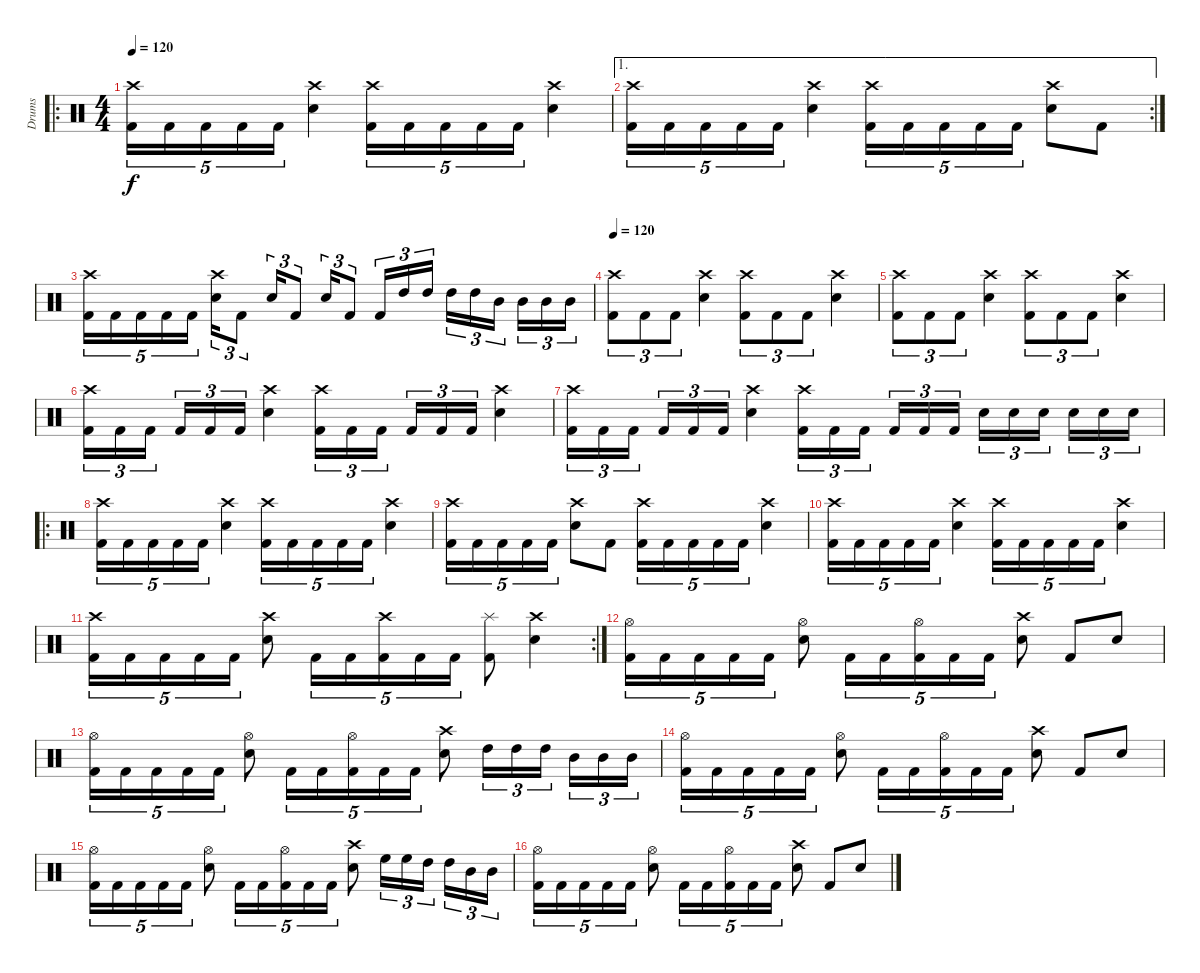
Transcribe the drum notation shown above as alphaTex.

\track ("Drums" "Drums") {instrument percussion}
\staff {score}
\articulation defaults
\ro
\ts (4 4)
\tempo 120
\clef neutral
\ks c
("Crash high (hit)" "Kick (hit) 2").16{tu (5 4) dy f} "Kick (hit) 2".16{tu (5 4)} "Kick (hit) 2".16{tu (5 4)} "Kick (hit) 2".16{tu (5 4)} "Kick (hit) 2".16{tu (5 4)} ("Crash high (hit)" "Electric Snare (hit)").4 ("Crash high (hit)" "Kick (hit) 2").16{tu (5 4)} "Kick (hit) 2".16{tu (5 4)} "Kick (hit) 2".16{tu (5 4)} "Kick (hit) 2".16{tu (5 4)} "Kick (hit) 2".16{tu (5 4)} ("Crash high (hit)" "Electric Snare (hit)").4 |
\ae 1
\rc 2
("Crash high (hit)" "Kick (hit) 2").16{tu (5 4)} "Kick (hit) 2".16{tu (5 4)} "Kick (hit) 2".16{tu (5 4)} "Kick (hit) 2".16{tu (5 4)} "Kick (hit) 2".16{tu (5 4)} ("Crash high (hit)" "Electric Snare (hit)").4 ("Crash high (hit)" "Kick (hit) 2").16{tu (5 4)} "Kick (hit) 2".16{tu (5 4)} "Kick (hit) 2".16{tu (5 4)} "Kick (hit) 2".16{tu (5 4)} "Kick (hit) 2".16{tu (5 4)} ("Crash high (hit)" "Electric Snare (hit)").8 "Kick (hit) 2".8 |
("Crash high (hit)" "Kick (hit) 2").16{tu (5 4)} "Kick (hit) 2".16{tu (5 4)} "Kick (hit) 2".16{tu (5 4)} "Kick (hit) 2".16{tu (5 4)} "Kick (hit) 2".16{tu (5 4)} ("Crash high (hit)" "Electric Snare (hit)").16{tu (3 2)} "Kick (hit) 2".8{tu (3 2)} "Electric Snare (hit)".16{tu (3 2)} "Kick (hit) 2".8{tu (3 2)} "Electric Snare (hit)".16{tu (3 2)} "Kick (hit) 2".8{tu (3 2)} "Kick (hit) 2".16{tu (3 2)} "High Tom (hit)".16{tu (3 2)} "High Tom (hit)".16{tu (3 2)} "High Tom (hit)".16{tu (3 2)} "High Tom (hit)".16{tu (3 2)} "Mid Tom (hit)".16{tu (3 2)} "Mid Tom (hit)".16{tu (3 2)} "Mid Tom (hit)".16{tu (3 2)} "Mid Tom (hit)".16{tu (3 2)} |
\tempo 120
("Crash high (hit)" "Kick (hit) 2").8{tu (3 2)} "Kick (hit) 2".8{tu (3 2)} "Kick (hit) 2".8{tu (3 2)} ("Crash high (hit)" "Electric Snare (hit)").4 ("Crash high (hit)" "Kick (hit) 2").8{tu (3 2)} "Kick (hit) 2".8{tu (3 2)} "Kick (hit) 2".8{tu (3 2)} ("Crash high (hit)" "Electric Snare (hit)").4 |
("Crash high (hit)" "Kick (hit) 2").8{tu (3 2)} "Kick (hit) 2".8{tu (3 2)} "Kick (hit) 2".8{tu (3 2)} ("Crash high (hit)" "Electric Snare (hit)").4 ("Crash high (hit)" "Kick (hit) 2").8{tu (3 2)} "Kick (hit) 2".8{tu (3 2)} "Kick (hit) 2".8{tu (3 2)} ("Crash high (hit)" "Electric Snare (hit)").4 |
("Crash high (hit)" "Kick (hit) 2").16{tu (3 2)} "Kick (hit) 2".16{tu (3 2)} "Kick (hit) 2".16{tu (3 2)} "Kick (hit) 2".16{tu (3 2)} "Kick (hit) 2".16{tu (3 2)} "Kick (hit) 2".16{tu (3 2)} ("Crash high (hit)" "Electric Snare (hit)").4 ("Crash high (hit)" "Kick (hit) 2").16{tu (3 2)} "Kick (hit) 2".16{tu (3 2)} "Kick (hit) 2".16{tu (3 2)} "Kick (hit) 2".16{tu (3 2)} "Kick (hit) 2".16{tu (3 2)} "Kick (hit) 2".16{tu (3 2)} ("Crash high (hit)" "Electric Snare (hit)").4 |
("Crash high (hit)" "Kick (hit) 2").16{tu (3 2)} "Kick (hit) 2".16{tu (3 2)} "Kick (hit) 2".16{tu (3 2)} "Kick (hit) 2".16{tu (3 2)} "Kick (hit) 2".16{tu (3 2)} "Kick (hit) 2".16{tu (3 2)} ("Crash high (hit)" "Electric Snare (hit)").4 ("Crash high (hit)" "Kick (hit) 2").16{tu (3 2)} "Kick (hit) 2".16{tu (3 2)} "Kick (hit) 2".16{tu (3 2)} "Kick (hit) 2".16{tu (3 2)} "Kick (hit) 2".16{tu (3 2)} "Kick (hit) 2".16{tu (3 2)} "Electric Snare (hit)".16{tu (3 2)} "Electric Snare (hit)".16{tu (3 2)} "Electric Snare (hit)".16{tu (3 2)} "Electric Snare (hit)".16{tu (3 2)} "Electric Snare (hit)".16{tu (3 2)} "Electric Snare (hit)".16{tu (3 2)} |
\ro
("Crash high (hit)" "Kick (hit) 2").16{tu (5 4)} "Kick (hit) 2".16{tu (5 4)} "Kick (hit) 2".16{tu (5 4)} "Kick (hit) 2".16{tu (5 4)} "Kick (hit) 2".16{tu (5 4)} ("Crash high (hit)" "Electric Snare (hit)").4 ("Crash high (hit)" "Kick (hit) 2").16{tu (5 4)} "Kick (hit) 2".16{tu (5 4)} "Kick (hit) 2".16{tu (5 4)} "Kick (hit) 2".16{tu (5 4)} "Kick (hit) 2".16{tu (5 4)} ("Crash high (hit)" "Electric Snare (hit)").4 |
("Crash high (hit)" "Kick (hit) 2").16{tu (5 4)} "Kick (hit) 2".16{tu (5 4)} "Kick (hit) 2".16{tu (5 4)} "Kick (hit) 2".16{tu (5 4)} "Kick (hit) 2".16{tu (5 4)} ("Crash high (hit)" "Electric Snare (hit)").8 "Kick (hit) 2".8 ("Crash high (hit)" "Kick (hit) 2").16{tu (5 4)} "Kick (hit) 2".16{tu (5 4)} "Kick (hit) 2".16{tu (5 4)} "Kick (hit) 2".16{tu (5 4)} "Kick (hit) 2".16{tu (5 4)} ("Crash high (hit)" "Electric Snare (hit)").4 |
("Crash high (hit)" "Kick (hit) 2").16{tu (5 4)} "Kick (hit) 2".16{tu (5 4)} "Kick (hit) 2".16{tu (5 4)} "Kick (hit) 2".16{tu (5 4)} "Kick (hit) 2".16{tu (5 4)} ("Crash high (hit)" "Electric Snare (hit)").4 ("Crash high (hit)" "Kick (hit) 2").16{tu (5 4)} "Kick (hit) 2".16{tu (5 4)} "Kick (hit) 2".16{tu (5 4)} "Kick (hit) 2".16{tu (5 4)} "Kick (hit) 2".16{tu (5 4)} ("Crash high (hit)" "Electric Snare (hit)").4 |
\rc 2
("Crash high (hit)" "Kick (hit) 2").16{tu (5 4)} "Kick (hit) 2".16{tu (5 4)} "Kick (hit) 2".16{tu (5 4)} "Kick (hit) 2".16{tu (5 4)} "Kick (hit) 2".16{tu (5 4)} ("Crash high (hit)" "Electric Snare (hit)").8 "Kick (hit) 2".16{tu (5 4)} "Kick (hit) 2".16{tu (5 4)} ("Crash high (hit)" "Kick (hit) 2").16{tu (5 4)} "Kick (hit) 2".16{tu (5 4)} "Kick (hit) 2".16{tu (5 4)} ("Splash (hit)" "Kick (hit) 2").8 ("Crash high (hit)" "Electric Snare (hit)").4 |
("Hi-Hat (open)" "Kick (hit) 2").16{tu (5 4)} "Kick (hit) 2".16{tu (5 4)} "Kick (hit) 2".16{tu (5 4)} "Kick (hit) 2".16{tu (5 4)} "Kick (hit) 2".16{tu (5 4)} ("Hi-Hat (open)" "Electric Snare (hit)").8 "Kick (hit) 2".16{tu (5 4)} "Kick (hit) 2".16{tu (5 4)} ("Hi-Hat (open)" "Kick (hit) 2").16{tu (5 4)} "Kick (hit) 2".16{tu (5 4)} "Kick (hit) 2".16{tu (5 4)} ("Crash high (hit)" "Electric Snare (hit)").8 "Kick (hit) 2".8 "Electric Snare (hit)".8 |
("Hi-Hat (open)" "Kick (hit) 2").16{tu (5 4)} "Kick (hit) 2".16{tu (5 4)} "Kick (hit) 2".16{tu (5 4)} "Kick (hit) 2".16{tu (5 4)} "Kick (hit) 2".16{tu (5 4)} ("Hi-Hat (open)" "Electric Snare (hit)").8 "Kick (hit) 2".16{tu (5 4)} "Kick (hit) 2".16{tu (5 4)} ("Hi-Hat (open)" "Kick (hit) 2").16{tu (5 4)} "Kick (hit) 2".16{tu (5 4)} "Kick (hit) 2".16{tu (5 4)} ("Crash high (hit)" "Electric Snare (hit)").8 "High Tom (hit)".16{tu (3 2)} "High Tom (hit)".16{tu (3 2)} "High Tom (hit)".16{tu (3 2)} "Mid Tom (hit)".16{tu (3 2)} "Mid Tom (hit)".16{tu (3 2)} "Mid Tom (hit)".16{tu (3 2)} |
("Hi-Hat (open)" "Kick (hit) 2").16{tu (5 4)} "Kick (hit) 2".16{tu (5 4)} "Kick (hit) 2".16{tu (5 4)} "Kick (hit) 2".16{tu (5 4)} "Kick (hit) 2".16{tu (5 4)} ("Hi-Hat (open)" "Electric Snare (hit)").8 "Kick (hit) 2".16{tu (5 4)} "Kick (hit) 2".16{tu (5 4)} ("Hi-Hat (open)" "Kick (hit) 2").16{tu (5 4)} "Kick (hit) 2".16{tu (5 4)} "Kick (hit) 2".16{tu (5 4)} ("Crash high (hit)" "Electric Snare (hit)").8 "Kick (hit) 2".8 "Electric Snare (hit)".8 |
("Hi-Hat (open)" "Kick (hit) 2").16{tu (5 4)} "Kick (hit) 2".16{tu (5 4)} "Kick (hit) 2".16{tu (5 4)} "Kick (hit) 2".16{tu (5 4)} "Kick (hit) 2".16{tu (5 4)} ("Hi-Hat (open)" "Electric Snare (hit)").8 "Kick (hit) 2".16{tu (5 4)} "Kick (hit) 2".16{tu (5 4)} ("Hi-Hat (open)" "Kick (hit) 2").16{tu (5 4)} "Kick (hit) 2".16{tu (5 4)} "Kick (hit) 2".16{tu (5 4)} ("Crash high (hit)" "Electric Snare (hit)").8 "High Floor Tom (hit)".16{tu (3 2)} "High Floor Tom (hit)".16{tu (3 2)} "High Tom (hit)".16{tu (3 2)} "High Tom (hit)".16{tu (3 2)} "Mid Tom (hit)".16{tu (3 2)} "Mid Tom (hit)".16{tu (3 2)} |
("Hi-Hat (open)" "Kick (hit) 2").16{tu (5 4)} "Kick (hit) 2".16{tu (5 4)} "Kick (hit) 2".16{tu (5 4)} "Kick (hit) 2".16{tu (5 4)} "Kick (hit) 2".16{tu (5 4)} ("Hi-Hat (open)" "Electric Snare (hit)").8 "Kick (hit) 2".16{tu (5 4)} "Kick (hit) 2".16{tu (5 4)} ("Hi-Hat (open)" "Kick (hit) 2").16{tu (5 4)} "Kick (hit) 2".16{tu (5 4)} "Kick (hit) 2".16{tu (5 4)} ("Crash high (hit)" "Electric Snare (hit)").8 "Kick (hit) 2".8 "Electric Snare (hit)".8
